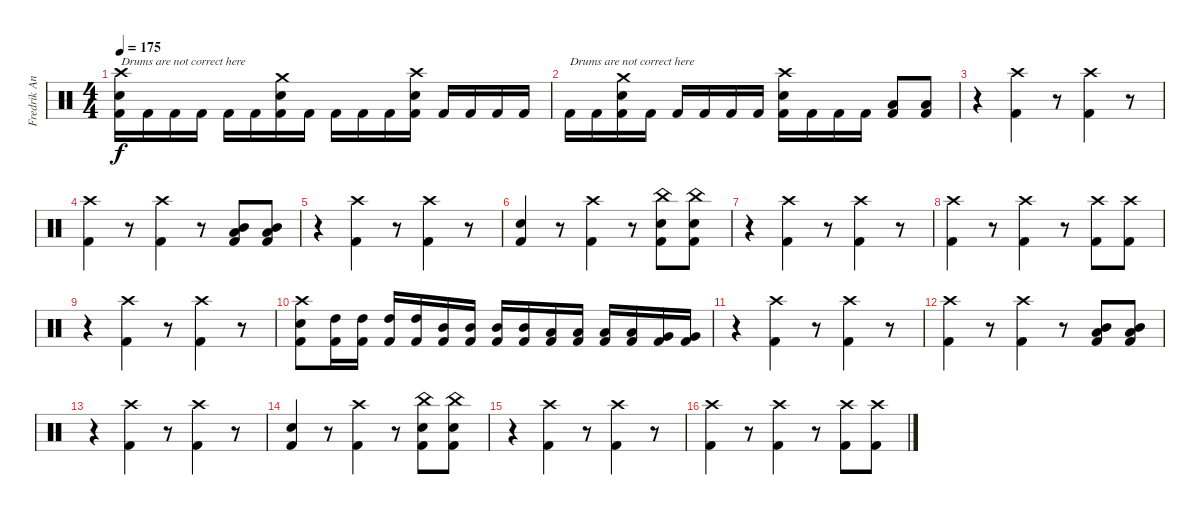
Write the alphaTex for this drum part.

\track ("Fredrik Andersson" "Fredrik An") {instrument percussion}
\staff {score}
\articulation defaults
\ts (4 4)
\tempo 175
\clef neutral
\ks c
("Crash high (hit)" "Electric Snare (hit)" "Kick (hit) 2").16{txt "Drums are not correct here" dy f} "Kick (hit) 2".16 "Kick (hit) 2".16 "Kick (hit) 2".16 "Kick (hit) 2".16 "Kick (hit) 2".16 ("Crash medium (hit)" "Electric Snare (hit)" "Kick (hit) 2").16 "Kick (hit) 2".16 "Kick (hit) 2".16 "Kick (hit) 2".16 "Kick (hit) 2".16 ("Crash high (hit)" "Electric Snare (hit)" "Kick (hit) 2").16 "Kick (hit) 2".16 "Kick (hit) 2".16 "Kick (hit) 2".16 "Kick (hit) 2".16 |
"Kick (hit) 2".16{txt "Drums are not correct here"} "Kick (hit) 2".16 ("Crash medium (hit)" "Electric Snare (hit)" "Kick (hit) 2").16 "Kick (hit) 2".16 "Kick (hit) 2".16 "Kick (hit) 2".16 "Kick (hit) 2".16 "Kick (hit) 2".16 ("Crash high (hit)" "Electric Snare (hit)" "Kick (hit) 2").16 "Kick (hit) 2".16 "Kick (hit) 2".16 "Kick (hit) 2".16 ("Low Tom (hit)" "Kick (hit) 2").8 ("Low Tom (hit)" "Kick (hit) 2").8 |
r.4 ("Crash high (hit)" "Kick (hit) 2").4 r.8 ("Crash high (hit)" "Kick (hit) 2").4 r.8 |
("Crash high (hit)" "Kick (hit) 2").4 r.8 ("Crash high (hit)" "Kick (hit) 2").4 r.8 ("Mid Tom (hit)" "Low Tom (hit)" "Kick (hit) 2").8 ("Mid Tom (hit)" "Low Tom (hit)" "Kick (hit) 2").8 |
r.4 ("Crash high (hit)" "Kick (hit) 2").4 r.8 ("Crash high (hit)" "Kick (hit) 2").4 r.8 |
("Electric Snare (hit)" "Kick (hit) 2").4 r.8 ("Crash high (hit)" "Kick (hit) 2").4 r.8 ("China (hit)" "Electric Snare (hit)" "Kick (hit) 2").8 ("China (hit)" "Electric Snare (hit)" "Kick (hit) 2").8 |
r.4 ("Crash high (hit)" "Kick (hit) 2").4 r.8 ("Crash high (hit)" "Kick (hit) 2").4 r.8 |
("Crash high (hit)" "Kick (hit) 2").4 r.8 ("Crash high (hit)" "Kick (hit) 2").4 r.8 ("Crash high (hit)" "Kick (hit) 2").8 ("Crash high (hit)" "Kick (hit) 2").8 |
r.4 ("Crash high (hit)" "Kick (hit) 2").4 r.8 ("Crash high (hit)" "Kick (hit) 2").4 r.8 |
("Crash high (hit)" "Electric Snare (hit)" "Kick (hit) 2").8 ("High Tom (hit)" "Kick (hit) 2").16 ("High Tom (hit)" "Kick (hit) 2").16 ("High Tom (hit)" "Kick (hit) 2").16 ("High Tom (hit)" "Kick (hit) 2").16 ("Mid Tom (hit)" "Kick (hit) 2").16 ("Mid Tom (hit)" "Kick (hit) 2").16 ("Mid Tom (hit)" "Kick (hit) 2").16 ("Mid Tom (hit)" "Kick (hit) 2").16 ("Low Tom (hit)" "Kick (hit) 2").16 ("Low Tom (hit)" "Kick (hit) 2").16 ("Low Tom (hit)" "Kick (hit) 2").16 ("Low Tom (hit)" "Kick (hit) 2").16 ("Very Low Tom (hit)" "Kick (hit) 2").16 ("Very Low Tom (hit)" "Kick (hit) 2").16 |
r.4 ("Crash high (hit)" "Kick (hit) 2").4 r.8 ("Crash high (hit)" "Kick (hit) 2").4 r.8 |
("Crash high (hit)" "Kick (hit) 2").4 r.8 ("Crash high (hit)" "Kick (hit) 2").4 r.8 ("Mid Tom (hit)" "Low Tom (hit)" "Kick (hit) 2").8 ("Mid Tom (hit)" "Low Tom (hit)" "Kick (hit) 2").8 |
r.4 ("Crash high (hit)" "Kick (hit) 2").4 r.8 ("Crash high (hit)" "Kick (hit) 2").4 r.8 |
("Electric Snare (hit)" "Kick (hit) 2").4 r.8 ("Crash high (hit)" "Kick (hit) 2").4 r.8 ("China (hit)" "Electric Snare (hit)" "Kick (hit) 2").8 ("China (hit)" "Electric Snare (hit)" "Kick (hit) 2").8 |
r.4 ("Crash high (hit)" "Kick (hit) 2").4 r.8 ("Crash high (hit)" "Kick (hit) 2").4 r.8 |
("Crash high (hit)" "Kick (hit) 2").4 r.8 ("Crash high (hit)" "Kick (hit) 2").4 r.8 ("Crash high (hit)" "Kick (hit) 2").8 ("Crash high (hit)" "Kick (hit) 2").8
